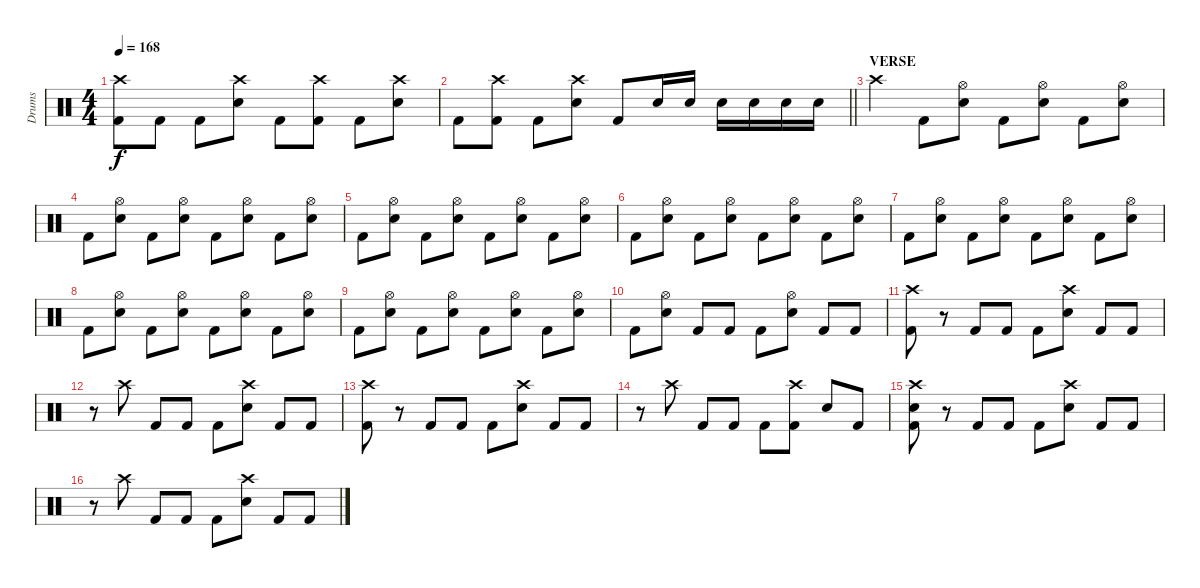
\track ("Drums" "Drums") {instrument percussion}
\staff {score}
\articulation defaults
\ts (4 4)
\tempo 168
\clef neutral
\ks c
("Crash high (hit)" "Kick (hit) 2").8{dy f} "Kick (hit) 2".8 "Kick (hit) 2".8 ("Crash high (hit)" "Snare (hit) 2").8 "Kick (hit) 2".8 ("Crash high (hit)" "Kick (hit) 2").8 "Kick (hit) 2".8 ("Crash high (hit)" "Snare (hit) 2").8 |
\barLineRight lightlight "Kick (hit) 2".8
("Crash high (hit)" "Kick (hit) 2").8 "Kick (hit) 2".8 ("Crash high (hit)" "Snare (hit) 2").8 "Kick (hit) 2".8 "Snare (hit) 2".16 "Snare (hit) 2".16 "Snare (hit) 2".16 "Snare (hit) 2".16 "Snare (hit) 2".16 "Snare (hit) 2".16 |
\section ("" "VERSE")
"Crash high (hit)".4 "Kick (hit) 2".8 ("Hi-Hat (open)" "Snare (hit) 2").8 "Kick (hit) 2".8 ("Hi-Hat (open)" "Snare (hit) 2").8 "Kick (hit) 2".8 ("Hi-Hat (open)" "Snare (hit) 2").8 |
"Kick (hit) 2".8 ("Hi-Hat (open)" "Snare (hit) 2").8 "Kick (hit) 2".8 ("Hi-Hat (open)" "Snare (hit) 2").8 "Kick (hit) 2".8 ("Hi-Hat (open)" "Snare (hit) 2").8 "Kick (hit) 2".8 ("Hi-Hat (open)" "Snare (hit) 2").8 |
"Kick (hit) 2".8 ("Hi-Hat (open)" "Snare (hit) 2").8 "Kick (hit) 2".8 ("Hi-Hat (open)" "Snare (hit) 2").8 "Kick (hit) 2".8 ("Hi-Hat (open)" "Snare (hit) 2").8 "Kick (hit) 2".8 ("Hi-Hat (open)" "Snare (hit) 2").8 |
"Kick (hit) 2".8 ("Hi-Hat (open)" "Snare (hit) 2").8 "Kick (hit) 2".8 ("Hi-Hat (open)" "Snare (hit) 2").8 "Kick (hit) 2".8 ("Hi-Hat (open)" "Snare (hit) 2").8 "Kick (hit) 2".8 ("Hi-Hat (open)" "Snare (hit) 2").8 |
"Kick (hit) 2".8 ("Hi-Hat (open)" "Snare (hit) 2").8 "Kick (hit) 2".8 ("Hi-Hat (open)" "Snare (hit) 2").8 "Kick (hit) 2".8 ("Hi-Hat (open)" "Snare (hit) 2").8 "Kick (hit) 2".8 ("Hi-Hat (open)" "Snare (hit) 2").8 |
"Kick (hit) 2".8 ("Hi-Hat (open)" "Snare (hit) 2").8 "Kick (hit) 2".8 ("Hi-Hat (open)" "Snare (hit) 2").8 "Kick (hit) 2".8 ("Hi-Hat (open)" "Snare (hit) 2").8 "Kick (hit) 2".8 ("Hi-Hat (open)" "Snare (hit) 2").8 |
"Kick (hit) 2".8 ("Hi-Hat (open)" "Snare (hit) 2").8 "Kick (hit) 2".8 ("Hi-Hat (open)" "Snare (hit) 2").8 "Kick (hit) 2".8 ("Hi-Hat (open)" "Snare (hit) 2").8 "Kick (hit) 2".8 ("Hi-Hat (open)" "Snare (hit) 2").8 |
"Kick (hit) 2".8 ("Hi-Hat (open)" "Snare (hit) 2").8 "Kick (hit) 2".8 "Kick (hit) 2".8 "Kick (hit) 2".8 ("Hi-Hat (open)" "Snare (hit) 2").8 "Kick (hit) 2".8 "Kick (hit) 2".8 |
("Crash high (hit)" "Kick (hit) 2").8 r.8 "Kick (hit) 2".8 "Kick (hit) 2".8 "Kick (hit) 2".8 ("Crash high (hit)" "Snare (hit) 2").8 "Kick (hit) 2".8 "Kick (hit) 2".8 |
r.8 "Crash high (hit)".8 "Kick (hit) 2".8 "Kick (hit) 2".8 "Kick (hit) 2".8 ("Crash high (hit)" "Snare (hit) 2").8 "Kick (hit) 2".8 "Kick (hit) 2".8 |
("Crash high (hit)" "Kick (hit) 2").8 r.8 "Kick (hit) 2".8 "Kick (hit) 2".8 "Kick (hit) 2".8 ("Crash high (hit)" "Snare (hit) 2").8 "Kick (hit) 2".8 "Kick (hit) 2".8 |
r.8 "Crash high (hit)".8 "Kick (hit) 2".8 "Kick (hit) 2".8 "Kick (hit) 2".8 ("Crash high (hit)" "Kick (hit) 2").8 "Snare (hit) 2".8 "Kick (hit) 2".8 |
("Crash high (hit)" "Snare (hit) 2" "Kick (hit) 2").8 r.8 "Kick (hit) 2".8 "Kick (hit) 2".8 "Kick (hit) 2".8 ("Crash high (hit)" "Snare (hit) 2").8 "Kick (hit) 2".8 "Kick (hit) 2".8 |
r.8 "Crash high (hit)".8 "Kick (hit) 2".8 "Kick (hit) 2".8 "Kick (hit) 2".8 ("Crash high (hit)" "Snare (hit) 2").8 "Kick (hit) 2".8 "Kick (hit) 2".8
